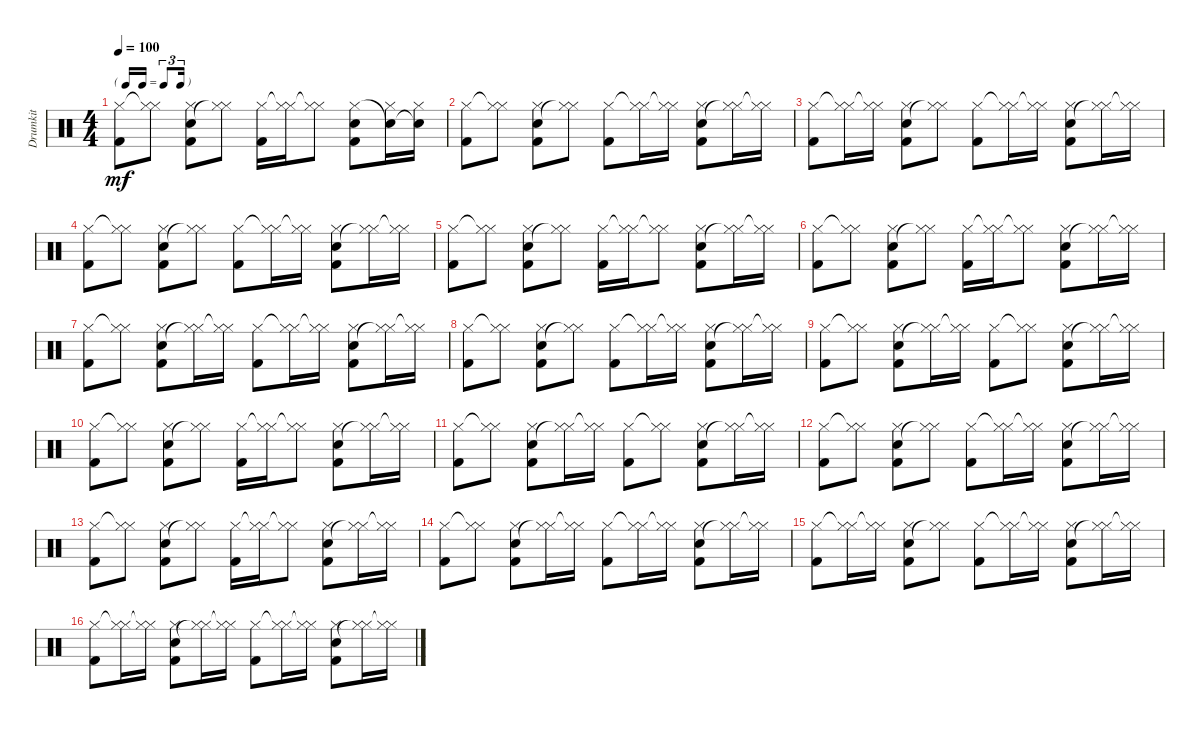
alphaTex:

\track ("Drumkit" "Drumkit") {instrument percussion}
\staff {score}
\articulation defaults
\ts (4 4)
\tf triplet16th
\tempo 100
\clef neutral
\ks c
("Hi-Hat (closed)" "Kick (hit) 2").8{dy mf} ("Hi-Hat (closed)"{t} "Hi-Hat (closed)").8 ("Snare (hit) 2" "Hi-Hat (closed)" "Kick (hit) 2").8 ("Hi-Hat (closed)"{t} "Hi-Hat (closed)").8 ("Hi-Hat (closed)" "Kick (hit) 2").16 ("Hi-Hat (closed)"{t} "Hi-Hat (closed)").16 ("Hi-Hat (closed)"{t} "Hi-Hat (closed)").8 ("Hi-Hat (closed)" "Snare (hit) 2" "Kick (hit) 2").8 ("Snare (hit) 2"{t} "Hi-Hat (closed)").16 ("Snare (hit) 2"{t} "Hi-Hat (closed)").16 |
("Hi-Hat (closed)" "Kick (hit) 2").8 ("Hi-Hat (closed)"{t} "Hi-Hat (closed)").8 ("Snare (hit) 2" "Hi-Hat (closed)" "Kick (hit) 2").8 ("Hi-Hat (closed)"{t} "Hi-Hat (closed)").8 ("Hi-Hat (closed)" "Kick (hit) 2").8 ("Hi-Hat (closed)"{t} "Hi-Hat (closed)").16 ("Hi-Hat (closed)"{t} "Hi-Hat (closed)").16 ("Snare (hit) 2" "Hi-Hat (closed)" "Kick (hit) 2").8 ("Hi-Hat (closed)"{t} "Hi-Hat (closed)").16 ("Hi-Hat (closed)"{t} "Hi-Hat (closed)").16 |
("Hi-Hat (closed)" "Kick (hit) 2").8 ("Hi-Hat (closed)"{t} "Hi-Hat (closed)").16 ("Hi-Hat (closed)"{t} "Hi-Hat (closed)").16 ("Snare (hit) 2" "Hi-Hat (closed)" "Kick (hit) 2").8 ("Hi-Hat (closed)"{t} "Hi-Hat (closed)").8 ("Hi-Hat (closed)" "Kick (hit) 2").8 ("Hi-Hat (closed)"{t} "Hi-Hat (closed)").16 ("Hi-Hat (closed)"{t} "Hi-Hat (closed)").16 ("Snare (hit) 2" "Hi-Hat (closed)" "Kick (hit) 2").8 ("Hi-Hat (closed)"{t} "Hi-Hat (closed)").16 ("Hi-Hat (closed)"{t} "Hi-Hat (closed)").16 |
("Hi-Hat (closed)" "Kick (hit) 2").8 ("Hi-Hat (closed)"{t} "Hi-Hat (closed)").8 ("Snare (hit) 2" "Hi-Hat (closed)" "Kick (hit) 2").8 ("Hi-Hat (closed)"{t} "Hi-Hat (closed)").8 ("Hi-Hat (closed)" "Kick (hit) 2").8 ("Hi-Hat (closed)"{t} "Hi-Hat (closed)").16 ("Hi-Hat (closed)"{t} "Hi-Hat (closed)").16 ("Snare (hit) 2" "Hi-Hat (closed)" "Kick (hit) 2").8 ("Hi-Hat (closed)"{t} "Hi-Hat (closed)").16 ("Hi-Hat (closed)"{t} "Hi-Hat (closed)").16 |
("Hi-Hat (closed)" "Kick (hit) 2").8 ("Hi-Hat (closed)"{t} "Hi-Hat (closed)").8 ("Snare (hit) 2" "Hi-Hat (closed)" "Kick (hit) 2").8 ("Hi-Hat (closed)"{t} "Hi-Hat (closed)").8 ("Hi-Hat (closed)" "Kick (hit) 2").16 ("Hi-Hat (closed)"{t} "Hi-Hat (closed)").16 ("Hi-Hat (closed)"{t} "Hi-Hat (closed)").8 ("Snare (hit) 2" "Hi-Hat (closed)" "Kick (hit) 2").8 ("Hi-Hat (closed)"{t} "Hi-Hat (closed)").16 ("Hi-Hat (closed)"{t} "Hi-Hat (closed)").16 |
("Hi-Hat (closed)" "Kick (hit) 2").8 ("Hi-Hat (closed)"{t} "Hi-Hat (closed)").8 ("Snare (hit) 2" "Hi-Hat (closed)" "Kick (hit) 2").8 ("Hi-Hat (closed)"{t} "Hi-Hat (closed)").8 ("Hi-Hat (closed)" "Kick (hit) 2").16 ("Hi-Hat (closed)"{t} "Hi-Hat (closed)").16 ("Hi-Hat (closed)"{t} "Hi-Hat (closed)").8 ("Snare (hit) 2" "Hi-Hat (closed)" "Kick (hit) 2").8 ("Hi-Hat (closed)"{t} "Hi-Hat (closed)").16 ("Hi-Hat (closed)"{t} "Hi-Hat (closed)").16 |
("Hi-Hat (closed)" "Kick (hit) 2").8 ("Hi-Hat (closed)"{t} "Hi-Hat (closed)").8 ("Snare (hit) 2" "Hi-Hat (closed)" "Kick (hit) 2").8 ("Hi-Hat (closed)"{t} "Hi-Hat (closed)").16 ("Hi-Hat (closed)"{t} "Hi-Hat (closed)").16 ("Hi-Hat (closed)" "Kick (hit) 2").8 ("Hi-Hat (closed)"{t} "Hi-Hat (closed)").16 ("Hi-Hat (closed)"{t} "Hi-Hat (closed)").16 ("Snare (hit) 2" "Hi-Hat (closed)" "Kick (hit) 2").8 ("Hi-Hat (closed)"{t} "Hi-Hat (closed)").16 ("Hi-Hat (closed)"{t} "Hi-Hat (closed)").16 |
("Hi-Hat (closed)" "Kick (hit) 2").8 ("Hi-Hat (closed)"{t} "Hi-Hat (closed)").8 ("Snare (hit) 2" "Hi-Hat (closed)" "Kick (hit) 2").8 ("Hi-Hat (closed)"{t} "Hi-Hat (closed)").8 ("Hi-Hat (closed)" "Kick (hit) 2").8 ("Hi-Hat (closed)"{t} "Hi-Hat (closed)").16 ("Hi-Hat (closed)"{t} "Hi-Hat (closed)").16 ("Snare (hit) 2" "Hi-Hat (closed)" "Kick (hit) 2").8 ("Hi-Hat (closed)"{t} "Hi-Hat (closed)").16 ("Hi-Hat (closed)"{t} "Hi-Hat (closed)").16 |
("Hi-Hat (closed)" "Kick (hit) 2").8 ("Hi-Hat (closed)"{t} "Hi-Hat (closed)").8 ("Snare (hit) 2" "Hi-Hat (closed)" "Kick (hit) 2").8 ("Hi-Hat (closed)"{t} "Hi-Hat (closed)").16 ("Hi-Hat (closed)"{t} "Hi-Hat (closed)").16 ("Hi-Hat (closed)" "Kick (hit) 2").8 ("Hi-Hat (closed)"{t} "Hi-Hat (closed)").8 ("Snare (hit) 2" "Hi-Hat (closed)" "Kick (hit) 2").8 ("Hi-Hat (closed)"{t} "Hi-Hat (closed)").16 ("Hi-Hat (closed)"{t} "Hi-Hat (closed)").16 |
("Hi-Hat (closed)" "Kick (hit) 2").8 ("Hi-Hat (closed)"{t} "Hi-Hat (closed)").8 ("Snare (hit) 2" "Hi-Hat (closed)" "Kick (hit) 2").8 ("Hi-Hat (closed)"{t} "Hi-Hat (closed)").8 ("Hi-Hat (closed)" "Kick (hit) 2").16 ("Hi-Hat (closed)"{t} "Hi-Hat (closed)").16 ("Hi-Hat (closed)"{t} "Hi-Hat (closed)").8 ("Snare (hit) 2" "Hi-Hat (closed)" "Kick (hit) 2").8 ("Hi-Hat (closed)"{t} "Hi-Hat (closed)").16 ("Hi-Hat (closed)"{t} "Hi-Hat (closed)").16 |
("Hi-Hat (closed)" "Kick (hit) 2").8 ("Hi-Hat (closed)"{t} "Hi-Hat (closed)").8 ("Snare (hit) 2" "Hi-Hat (closed)" "Kick (hit) 2").8 ("Hi-Hat (closed)"{t} "Hi-Hat (closed)").16 ("Hi-Hat (closed)"{t} "Hi-Hat (closed)").16 ("Hi-Hat (closed)" "Kick (hit) 2").8 ("Hi-Hat (closed)"{t} "Hi-Hat (closed)").8 ("Snare (hit) 2" "Hi-Hat (closed)" "Kick (hit) 2").8 ("Hi-Hat (closed)"{t} "Hi-Hat (closed)").16 ("Hi-Hat (closed)"{t} "Hi-Hat (closed)").16 |
("Hi-Hat (closed)" "Kick (hit) 2").8 ("Hi-Hat (closed)"{t} "Hi-Hat (closed)").8 ("Snare (hit) 2" "Hi-Hat (closed)" "Kick (hit) 2").8 ("Hi-Hat (closed)"{t} "Hi-Hat (closed)").8 ("Hi-Hat (closed)" "Kick (hit) 2").8 ("Hi-Hat (closed)"{t} "Hi-Hat (closed)").16 ("Hi-Hat (closed)"{t} "Hi-Hat (closed)").16 ("Snare (hit) 2" "Hi-Hat (closed)" "Kick (hit) 2").8 ("Hi-Hat (closed)"{t} "Hi-Hat (closed)").16 ("Hi-Hat (closed)"{t} "Hi-Hat (closed)").16 |
("Hi-Hat (closed)" "Kick (hit) 2").8 ("Hi-Hat (closed)"{t} "Hi-Hat (closed)").8 ("Snare (hit) 2" "Hi-Hat (closed)" "Kick (hit) 2").8 ("Hi-Hat (closed)"{t} "Hi-Hat (closed)").8 ("Hi-Hat (closed)" "Kick (hit) 2").16 ("Hi-Hat (closed)"{t} "Hi-Hat (closed)").16 ("Hi-Hat (closed)"{t} "Hi-Hat (closed)").8 ("Snare (hit) 2" "Hi-Hat (closed)" "Kick (hit) 2").8 ("Hi-Hat (closed)"{t} "Hi-Hat (closed)").16 ("Hi-Hat (closed)"{t} "Hi-Hat (closed)").16 |
("Hi-Hat (closed)" "Kick (hit) 2").8 ("Hi-Hat (closed)"{t} "Hi-Hat (closed)").8 ("Snare (hit) 2" "Hi-Hat (closed)" "Kick (hit) 2").8 ("Hi-Hat (closed)"{t} "Hi-Hat (closed)").16 ("Hi-Hat (closed)"{t} "Hi-Hat (closed)").16 ("Hi-Hat (closed)" "Kick (hit) 2").8 ("Hi-Hat (closed)"{t} "Hi-Hat (closed)").16 ("Hi-Hat (closed)"{t} "Hi-Hat (closed)").16 ("Snare (hit) 2" "Hi-Hat (closed)" "Kick (hit) 2").8 ("Hi-Hat (closed)"{t} "Hi-Hat (closed)").16 ("Hi-Hat (closed)"{t} "Hi-Hat (closed)").16 |
("Hi-Hat (closed)" "Kick (hit) 2").8 ("Hi-Hat (closed)"{t} "Hi-Hat (closed)").16 ("Hi-Hat (closed)"{t} "Hi-Hat (closed)").16 ("Snare (hit) 2" "Hi-Hat (closed)" "Kick (hit) 2").8 ("Hi-Hat (closed)"{t} "Hi-Hat (closed)").8 ("Hi-Hat (closed)" "Kick (hit) 2").8 ("Hi-Hat (closed)"{t} "Hi-Hat (closed)").16 ("Hi-Hat (closed)"{t} "Hi-Hat (closed)").16 ("Snare (hit) 2" "Hi-Hat (closed)" "Kick (hit) 2").8 ("Hi-Hat (closed)"{t} "Hi-Hat (closed)").16 ("Hi-Hat (closed)"{t} "Hi-Hat (closed)").16 |
("Hi-Hat (closed)" "Kick (hit) 2").8 ("Hi-Hat (closed)"{t} "Hi-Hat (closed)").16 ("Hi-Hat (closed)"{t} "Hi-Hat (closed)").16 ("Snare (hit) 2" "Hi-Hat (closed)" "Kick (hit) 2").8 ("Hi-Hat (closed)"{t} "Hi-Hat (closed)").16 ("Hi-Hat (closed)"{t} "Hi-Hat (closed)").16 ("Hi-Hat (closed)" "Kick (hit) 2").8 ("Hi-Hat (closed)"{t} "Hi-Hat (closed)").16 ("Hi-Hat (closed)"{t} "Hi-Hat (closed)").16 ("Snare (hit) 2" "Hi-Hat (closed)" "Kick (hit) 2").8 ("Hi-Hat (closed)"{t} "Hi-Hat (closed)").16 ("Hi-Hat (closed)"{t} "Hi-Hat (closed)").16
